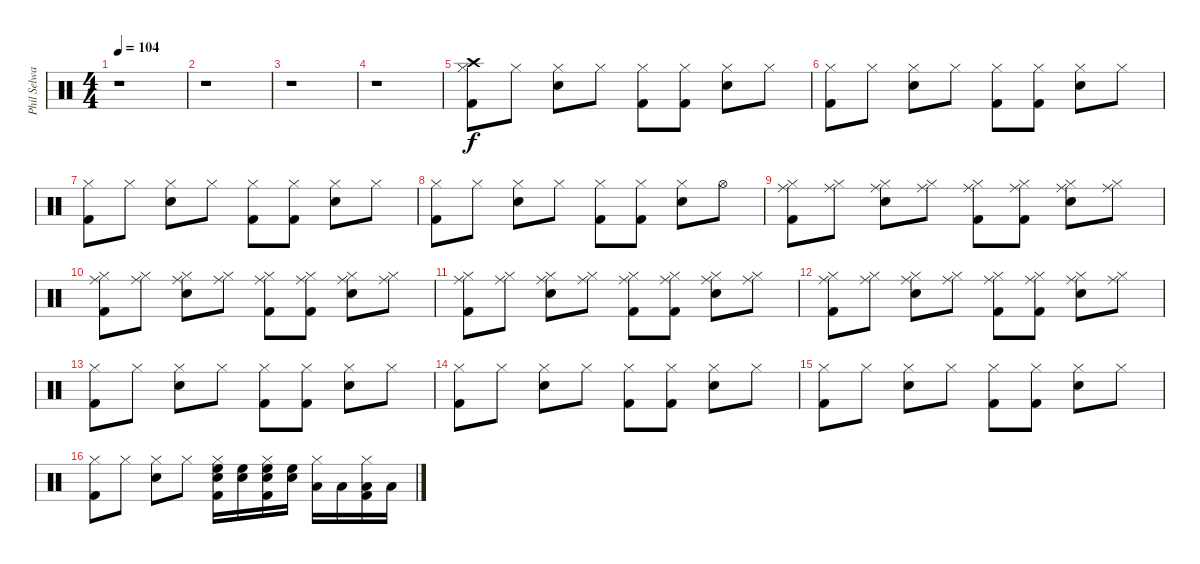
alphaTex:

\track ("Phil Selway" "Phil Selwa") {instrument percussion}
\staff {score}
\articulation defaults
\ts (4 4)
\tempo 104
\clef neutral
\ks c
r.1{dy f} |
r.1 |
r.1 |
r.1 |
("Kick (hit) 2" "Crash high (hit)" "Hi-Hat (closed)").8 "Hi-Hat (closed)".8 ("Electric Snare (hit)" "Hi-Hat (closed)").8 "Hi-Hat (closed)".8 ("Kick (hit) 2" "Hi-Hat (closed)").8 ("Kick (hit) 2" "Hi-Hat (closed)").8 ("Electric Snare (hit)" "Hi-Hat (closed)").8 "Hi-Hat (closed)".8 |
("Kick (hit) 2" "Hi-Hat (closed)").8 "Hi-Hat (closed)".8 ("Electric Snare (hit)" "Hi-Hat (closed)").8 "Hi-Hat (closed)".8 ("Kick (hit) 2" "Hi-Hat (closed)").8 ("Kick (hit) 2" "Hi-Hat (closed)").8 ("Electric Snare (hit)" "Hi-Hat (closed)").8 "Hi-Hat (closed)".8 |
("Kick (hit) 2" "Hi-Hat (closed)").8 "Hi-Hat (closed)".8 ("Electric Snare (hit)" "Hi-Hat (closed)").8 "Hi-Hat (closed)".8 ("Kick (hit) 2" "Hi-Hat (closed)").8 ("Kick (hit) 2" "Hi-Hat (closed)").8 ("Electric Snare (hit)" "Hi-Hat (closed)").8 "Hi-Hat (closed)".8 |
("Kick (hit) 2" "Hi-Hat (closed)").8 "Hi-Hat (closed)".8 ("Electric Snare (hit)" "Hi-Hat (closed)").8 "Hi-Hat (closed)".8 ("Kick (hit) 2" "Hi-Hat (closed)").8 ("Kick (hit) 2" "Hi-Hat (closed)").8 ("Electric Snare (hit)" "Hi-Hat (closed)").8 "Hi-Hat (open)".8 |
("Kick (hit) 2" "Hi-Hat (closed)" "Ride (middle)").8 ("Hi-Hat (closed)" "Ride (middle)").8 ("Electric Snare (hit)" "Hi-Hat (closed)" "Ride (middle)").8 ("Hi-Hat (closed)" "Ride (middle)").8 ("Kick (hit) 2" "Hi-Hat (closed)" "Ride (middle)").8 ("Kick (hit) 2" "Hi-Hat (closed)" "Ride (middle)").8 ("Electric Snare (hit)" "Hi-Hat (closed)" "Ride (middle)").8 ("Hi-Hat (closed)" "Ride (middle)").8 |
("Kick (hit) 2" "Hi-Hat (closed)" "Ride (middle)").8 ("Hi-Hat (closed)" "Ride (middle)").8 ("Electric Snare (hit)" "Hi-Hat (closed)" "Ride (middle)").8 ("Hi-Hat (closed)" "Ride (middle)").8 ("Kick (hit) 2" "Hi-Hat (closed)" "Ride (middle)").8 ("Kick (hit) 2" "Hi-Hat (closed)" "Ride (middle)").8 ("Electric Snare (hit)" "Hi-Hat (closed)" "Ride (middle)").8 ("Hi-Hat (closed)" "Ride (middle)").8 |
("Kick (hit) 2" "Hi-Hat (closed)" "Ride (middle)").8 ("Hi-Hat (closed)" "Ride (middle)").8 ("Electric Snare (hit)" "Hi-Hat (closed)" "Ride (middle)").8 ("Hi-Hat (closed)" "Ride (middle)").8 ("Kick (hit) 2" "Hi-Hat (closed)" "Ride (middle)").8 ("Kick (hit) 2" "Hi-Hat (closed)" "Ride (middle)").8 ("Electric Snare (hit)" "Hi-Hat (closed)" "Ride (middle)").8 ("Hi-Hat (closed)" "Ride (middle)").8 |
("Kick (hit) 2" "Hi-Hat (closed)" "Ride (middle)").8 ("Hi-Hat (closed)" "Ride (middle)").8 ("Electric Snare (hit)" "Hi-Hat (closed)" "Ride (middle)").8 ("Hi-Hat (closed)" "Ride (middle)").8 ("Kick (hit) 2" "Hi-Hat (closed)" "Ride (middle)").8 ("Kick (hit) 2" "Hi-Hat (closed)" "Ride (middle)").8 ("Electric Snare (hit)" "Hi-Hat (closed)" "Ride (middle)").8 ("Hi-Hat (closed)" "Ride (middle)").8 |
("Kick (hit) 2" "Hi-Hat (closed)").8 "Hi-Hat (closed)".8 ("Electric Snare (hit)" "Hi-Hat (closed)").8 "Hi-Hat (closed)".8 ("Kick (hit) 2" "Hi-Hat (closed)").8 ("Kick (hit) 2" "Hi-Hat (closed)").8 ("Electric Snare (hit)" "Hi-Hat (closed)").8 "Hi-Hat (closed)".8 |
("Kick (hit) 2" "Hi-Hat (closed)").8 "Hi-Hat (closed)".8 ("Electric Snare (hit)" "Hi-Hat (closed)").8 "Hi-Hat (closed)".8 ("Kick (hit) 2" "Hi-Hat (closed)").8 ("Kick (hit) 2" "Hi-Hat (closed)").8 ("Electric Snare (hit)" "Hi-Hat (closed)").8 "Hi-Hat (closed)".8 |
("Kick (hit) 2" "Hi-Hat (closed)").8 "Hi-Hat (closed)".8 ("Electric Snare (hit)" "Hi-Hat (closed)").8 "Hi-Hat (closed)".8 ("Kick (hit) 2" "Hi-Hat (closed)").8 ("Kick (hit) 2" "Hi-Hat (closed)").8 ("Electric Snare (hit)" "Hi-Hat (closed)").8 "Hi-Hat (closed)".8 |
("Kick (hit) 2" "Hi-Hat (closed)").8 "Hi-Hat (closed)".8 ("Electric Snare (hit)" "Hi-Hat (closed)").8 "Hi-Hat (closed)".8 ("Kick (hit) 2" "High Floor Tom (hit)" "Electric Snare (hit)" "Hi-Hat (closed)").16 ("High Floor Tom (hit)" "Electric Snare (hit)").16 ("Kick (hit) 2" "High Floor Tom (hit)" "Electric Snare (hit)" "Hi-Hat (closed)").16 ("High Floor Tom (hit)" "Electric Snare (hit)").16 ("Low Tom (hit)" "Hi-Hat (closed)").16 "Low Tom (hit)".16 ("Kick (hit) 2" "Low Tom (hit)" "Hi-Hat (closed)").16 "Low Tom (hit)".16
